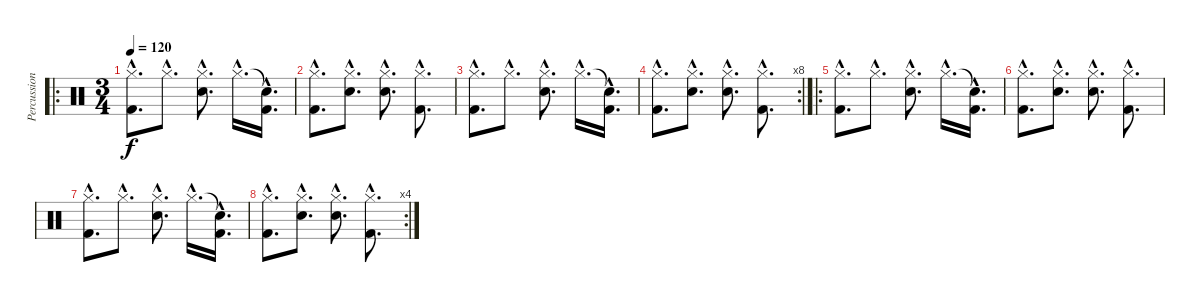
\track ("Percussion" "Percussion") {instrument percussion}
\staff {score}
\articulation defaults
\ro
\ts (3 4)
\tempo 120
\clef neutral
\ks c
("Hi-Hat (closed)"{hac} "Kick (hit) 2"{hac}).8{d dy f} "Hi-Hat (closed)"{hac}.8{d} ("Snare (hit) 2"{hac} "Hi-Hat (closed)"{hac}).8{d} "Hi-Hat (closed)"{hac}.16{d} ("Snare (hit)"{hac t} "Kick (hit) 2"{hac}).16{d} |
("Hi-Hat (closed)"{hac} "Kick (hit) 2"{hac}).8{d} ("Snare (hit) 2"{hac} "Hi-Hat (closed)"{hac}).8{d} ("Snare (hit) 2"{hac} "Hi-Hat (closed)"{hac}).8{d} ("Hi-Hat (closed)"{hac} "Kick (hit) 2"{hac}).8{d} |
("Hi-Hat (closed)"{hac} "Kick (hit) 2"{hac}).8{d} "Hi-Hat (closed)"{hac}.8{d} ("Snare (hit) 2"{hac} "Hi-Hat (closed)"{hac}).8{d} "Hi-Hat (closed)"{hac}.16{d} ("Snare (hit)"{hac t} "Kick (hit) 2"{hac}).16{d} |
\rc 8
("Hi-Hat (closed)"{hac} "Kick (hit) 2"{hac}).8{d} ("Snare (hit) 2"{hac} "Hi-Hat (closed)"{hac}).8{d} ("Snare (hit) 2"{hac} "Hi-Hat (closed)"{hac}).8{d} ("Hi-Hat (closed)"{hac} "Kick (hit) 2"{hac}).8{d} |
\ro
("Hi-Hat (closed)"{hac} "Kick (hit) 2"{hac}).8{d} "Hi-Hat (closed)"{hac}.8{d} ("Snare (hit) 2"{hac} "Hi-Hat (closed)"{hac}).8{d} "Hi-Hat (closed)"{hac}.16{d} ("Snare (hit)"{hac t} "Kick (hit) 2"{hac}).16{d} |
("Hi-Hat (closed)"{hac} "Kick (hit) 2"{hac}).8{d} ("Snare (hit) 2"{hac} "Hi-Hat (closed)"{hac}).8{d} ("Snare (hit) 2"{hac} "Hi-Hat (closed)"{hac}).8{d} ("Hi-Hat (closed)"{hac} "Kick (hit) 2"{hac}).8{d} |
("Hi-Hat (closed)"{hac} "Kick (hit) 2"{hac}).8{d} "Hi-Hat (closed)"{hac}.8{d} ("Snare (hit) 2"{hac} "Hi-Hat (closed)"{hac}).8{d} "Hi-Hat (closed)"{hac}.16{d} ("Snare (hit)"{hac t} "Kick (hit) 2"{hac}).16{d} |
\rc 4
("Hi-Hat (closed)"{hac} "Kick (hit) 2"{hac}).8{d} ("Snare (hit) 2"{hac} "Hi-Hat (closed)"{hac}).8{d} ("Snare (hit) 2"{hac} "Hi-Hat (closed)"{hac}).8{d} ("Hi-Hat (closed)"{hac} "Kick (hit) 2"{hac}).8{d}
